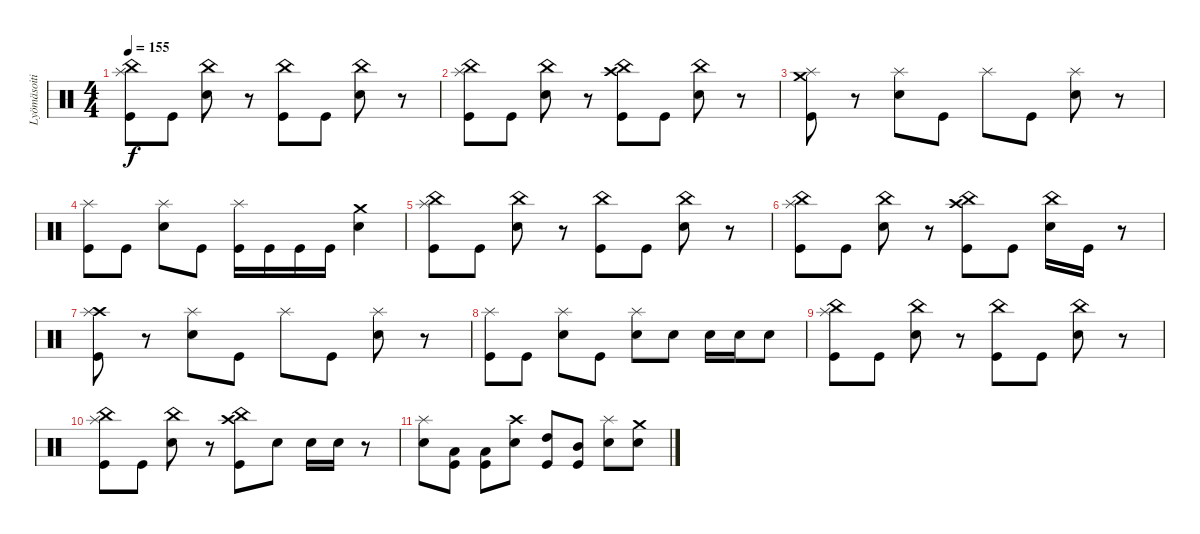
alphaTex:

\track ("Lyömäsoitin" "Lyömäsoiti") {instrument percussion}
\staff {score}
\articulation defaults
\ts (4 4)
\tempo 155
\clef neutral
\ks c
("Splash (hit)" "China (hit)" "Kick (hit)").8{dy f} "Kick (hit)".8 ("China (hit)" "Snare (hit) 2").8 r.8 ("China (hit)" "Kick (hit)").8 "Kick (hit)".8 ("China (hit)" "Snare (hit) 2").8 r.8 |
("Splash (hit)" "China (hit)" "Kick (hit)").8 "Kick (hit)".8 ("China (hit)" "Snare (hit) 2").8 r.8 ("Crash high (hit)" "China (hit)" "Kick (hit)").8 "Kick (hit)".8 ("China (hit)" "Snare (hit) 2").8 r.8 |
("Crash medium (hit)" "Splash (hit)" "Kick (hit)").8 r.8 ("Splash (hit)" "Snare (hit) 2").8 "Kick (hit)".8 "Splash (hit)".8 "Kick (hit)".8 ("Splash (hit)" "Snare (hit) 2").8 r.8 |
("Splash (hit)" "Kick (hit)").8 "Kick (hit)".8 ("Splash (hit)" "Snare (hit) 2").8 "Kick (hit)".8 ("Splash (hit)" "Kick (hit)").16 "Kick (hit)".16 "Kick (hit)".16 "Kick (hit)".16 ("Crash medium (hit)" "Snare (hit) 2").4 |
("Splash (hit)" "China (hit)" "Kick (hit)").8 "Kick (hit)".8 ("China (hit)" "Snare (hit) 2").8 r.8 ("China (hit)" "Kick (hit)").8 "Kick (hit)".8 ("China (hit)" "Snare (hit) 2").8 r.8 |
("Splash (hit)" "China (hit)" "Kick (hit)").8 "Kick (hit)".8 ("China (hit)" "Snare (hit) 2").8 r.8 ("Crash high (hit)" "China (hit)" "Kick (hit)").8 "Kick (hit)".8 ("China (hit)" "Snare (hit) 2").16 "Kick (hit)".16 r.8 |
("Crash high (hit)" "Splash (hit)" "Kick (hit)").8 r.8 ("Splash (hit)" "Snare (hit) 2").8 "Kick (hit)".8 "Splash (hit)".8 "Kick (hit)".8 ("Splash (hit)" "Snare (hit) 2").8 r.8 |
("Splash (hit)" "Kick (hit)").8 "Kick (hit)".8 ("Splash (hit)" "Snare (hit) 2").8 "Kick (hit)".8 ("Splash (hit)" "Snare (hit) 2").8 "Snare (hit) 2".8 "Snare (hit) 2".16 "Snare (hit) 2".16 "Snare (hit) 2".8 |
("Splash (hit)" "China (hit)" "Kick (hit)").8 "Kick (hit)".8 ("China (hit)" "Snare (hit) 2").8 r.8 ("China (hit)" "Kick (hit)").8 "Kick (hit)".8 ("China (hit)" "Snare (hit) 2").8 r.8 |
("Splash (hit)" "China (hit)" "Kick (hit)").8 "Kick (hit)".8 ("China (hit)" "Snare (hit) 2").8 r.8 ("Crash high (hit)" "China (hit)" "Kick (hit)").8 "Snare (hit) 2".8 "Snare (hit) 2".16 "Snare (hit) 2".16 r.8 |
("Snare (hit) 2" "Splash (hit)").8 ("Kick (hit)" "Low Tom (hit)").8 ("Kick (hit)" "Low Tom (hit)").8 ("Snare (hit) 2" "Crash high (hit)").8 ("Kick (hit)" "High Tom (hit)").8 ("Kick (hit)" "Mid Tom (hit)").8 ("Snare (hit) 2" "Splash (hit)").8 ("Snare (hit) 2" "Crash medium (hit)").8
